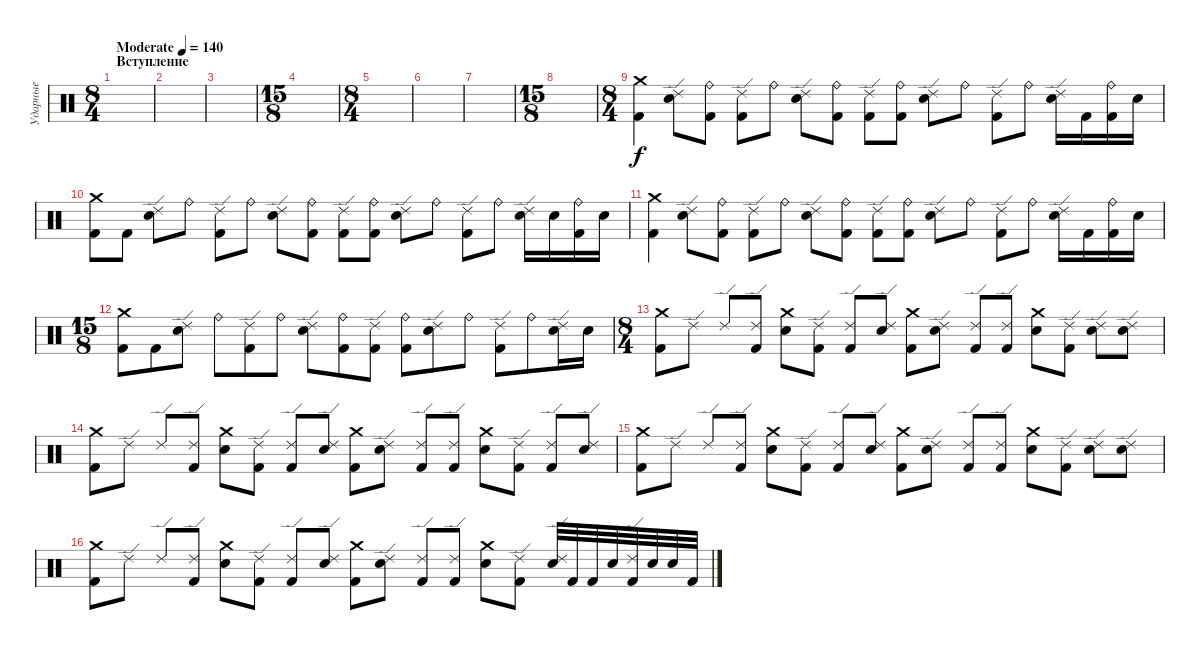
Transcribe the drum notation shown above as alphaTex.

\track ("Ударные" "Ударные") {instrument percussion}
\staff {score}
\articulation defaults
\ts (8 4)
\section ("" "Вступление")
\tempo (140 "Moderate")
\clef neutral
\ks c
|
|
|
\ts (15 8)
|
\ts (8 4)
|
|
|
\ts (15 8)
|
\ts (8 4)
("Crash medium (hit)" "Kick (hit) 2").4 ("Ride (edge) 2" "Electric Snare (hit)").8 ("Ride (bell)" "Kick (hit) 2").8 ("Ride (edge) 2" "Kick (hit) 2").8 "Ride (bell)".8 ("Ride (edge) 2" "Electric Snare (hit)").8 ("Ride (bell)" "Kick (hit) 2").8 ("Ride (edge) 2" "Kick (hit) 2").8 ("Ride (bell)" "Kick (hit) 2").8 ("Ride (edge) 2" "Electric Snare (hit)").8 "Ride (bell)".8 ("Ride (edge) 2" "Kick (hit) 2").8 "Ride (bell)".8 ("Ride (edge) 2" "Electric Snare (hit)").16 "Kick (hit) 2".16 ("Ride (bell)" "Kick (hit) 2").16 "Electric Snare (hit)".16 |
("Crash medium (hit)" "Kick (hit) 2").8 "Kick (hit) 2".8 ("Ride (edge) 2" "Electric Snare (hit)").8 "Ride (bell)".8 ("Ride (edge) 2" "Kick (hit) 2").8 "Ride (bell)".8 ("Ride (edge) 2" "Electric Snare (hit)").8 ("Ride (bell)" "Kick (hit) 2").8 ("Ride (edge) 2" "Kick (hit) 2").8 ("Ride (bell)" "Kick (hit) 2").8 ("Ride (edge) 2" "Electric Snare (hit)").8 "Ride (bell)".8 ("Ride (edge) 2" "Kick (hit) 2").8 "Ride (bell)".8 ("Ride (edge) 2" "Electric Snare (hit)").16 "Electric Snare (hit)".16 ("Ride (bell)" "Kick (hit) 2").16 "Electric Snare (hit)".16 |
("Crash medium (hit)" "Kick (hit) 2").4 ("Ride (edge) 2" "Electric Snare (hit)").8 ("Ride (bell)" "Kick (hit) 2").8 ("Ride (edge) 2" "Kick (hit) 2").8 "Ride (bell)".8 ("Ride (edge) 2" "Electric Snare (hit)").8 ("Ride (bell)" "Kick (hit) 2").8 ("Ride (edge) 2" "Kick (hit) 2").8 ("Ride (bell)" "Kick (hit) 2").8 ("Ride (edge) 2" "Electric Snare (hit)").8 "Ride (bell)".8 ("Ride (edge) 2" "Kick (hit) 2").8 "Ride (bell)".8 ("Ride (edge) 2" "Electric Snare (hit)").16 "Kick (hit) 2".16 ("Ride (bell)" "Kick (hit) 2").16 "Electric Snare (hit)".16 |
\ts (15 8)
("Crash medium (hit)" "Kick (hit) 2").8 "Kick (hit) 2".8 ("Ride (edge) 2" "Electric Snare (hit)").8 "Ride (bell)".8 ("Ride (edge) 2" "Kick (hit) 2").8 "Ride (bell)".8 ("Ride (edge) 2" "Electric Snare (hit)").8 ("Ride (bell)" "Kick (hit) 2").8 ("Ride (edge) 2" "Kick (hit) 2").8 ("Ride (bell)" "Kick (hit) 2").8 ("Ride (edge) 2" "Electric Snare (hit)").8 "Ride (bell)".8 ("Ride (edge) 2" "Kick (hit) 2").8 "Ride (bell)".8 ("Ride (edge) 2" "Electric Snare (hit)").16 "Electric Snare (hit)".16 |
\ts (8 4)
("Crash medium (hit)" "Kick (hit) 2").8 "Ride (edge) 2".8 "Ride (edge) 2".8 ("Ride (edge) 2" "Kick (hit) 2").8 ("Crash medium (hit)" "Electric Snare (hit)").8 ("Ride (edge) 2" "Kick (hit) 2").8 ("Ride (edge) 2" "Kick (hit) 2").8 ("Ride (edge) 2" "Electric Snare (hit)").8 ("Crash medium (hit)" "Kick (hit) 2").8 ("Ride (edge) 2" "Electric Snare (hit)").8 ("Ride (edge) 2" "Kick (hit) 2").8 ("Ride (edge) 2" "Kick (hit) 2").8 ("Crash medium (hit)" "Electric Snare (hit)").8 ("Ride (edge) 2" "Kick (hit) 2").8 ("Ride (edge) 2" "Electric Snare (hit)").8 ("Ride (edge) 2" "Electric Snare (hit)").8 |
("Crash medium (hit)" "Kick (hit) 2").8 "Ride (edge) 2".8 "Ride (edge) 2".8 ("Ride (edge) 2" "Kick (hit) 2").8 ("Crash medium (hit)" "Electric Snare (hit)").8 ("Ride (edge) 2" "Kick (hit) 2").8 ("Ride (edge) 2" "Kick (hit) 2").8 ("Ride (edge) 2" "Electric Snare (hit)").8 ("Crash medium (hit)" "Kick (hit) 2").8 ("Ride (edge) 2" "Electric Snare (hit)").8 ("Ride (edge) 2" "Kick (hit) 2").8 ("Ride (edge) 2" "Kick (hit) 2").8 ("Crash medium (hit)" "Electric Snare (hit)").8 ("Ride (edge) 2" "Kick (hit) 2").8 ("Ride (edge) 2" "Kick (hit) 2").8 ("Ride (edge) 2" "Electric Snare (hit)").8 |
("Crash medium (hit)" "Kick (hit) 2").8 "Ride (edge) 2".8 "Ride (edge) 2".8 ("Ride (edge) 2" "Kick (hit) 2").8 ("Crash medium (hit)" "Electric Snare (hit)").8 ("Ride (edge) 2" "Kick (hit) 2").8 ("Ride (edge) 2" "Kick (hit) 2").8 ("Ride (edge) 2" "Electric Snare (hit)").8 ("Crash medium (hit)" "Kick (hit) 2").8 ("Ride (edge) 2" "Electric Snare (hit)").8 ("Ride (edge) 2" "Kick (hit) 2").8 ("Ride (edge) 2" "Kick (hit) 2").8 ("Crash medium (hit)" "Electric Snare (hit)").8 ("Ride (edge) 2" "Kick (hit) 2").8 ("Ride (edge) 2" "Electric Snare (hit)").8 ("Ride (edge) 2" "Electric Snare (hit)").8 |
("Crash medium (hit)" "Kick (hit) 2").8 "Ride (edge) 2".8 "Ride (edge) 2".8 ("Ride (edge) 2" "Kick (hit) 2").8 ("Crash medium (hit)" "Electric Snare (hit)").8 ("Ride (edge) 2" "Kick (hit) 2").8 ("Ride (edge) 2" "Kick (hit) 2").8 ("Ride (edge) 2" "Electric Snare (hit)").8 ("Crash medium (hit)" "Kick (hit) 2").8 ("Ride (edge) 2" "Electric Snare (hit)").8 ("Ride (edge) 2" "Kick (hit) 2").8 ("Ride (edge) 2" "Kick (hit) 2").8 ("Crash medium (hit)" "Electric Snare (hit)").8 ("Ride (edge) 2" "Kick (hit) 2").8 ("Electric Snare (hit)" "Ride (edge) 2").32 "Kick (hit) 2".32 "Kick (hit) 2".32 "Electric Snare (hit)".32 ("Kick (hit) 2" "Ride (edge) 2").32 "Electric Snare (hit)".32 "Electric Snare (hit)".32 "Kick (hit) 2".32
